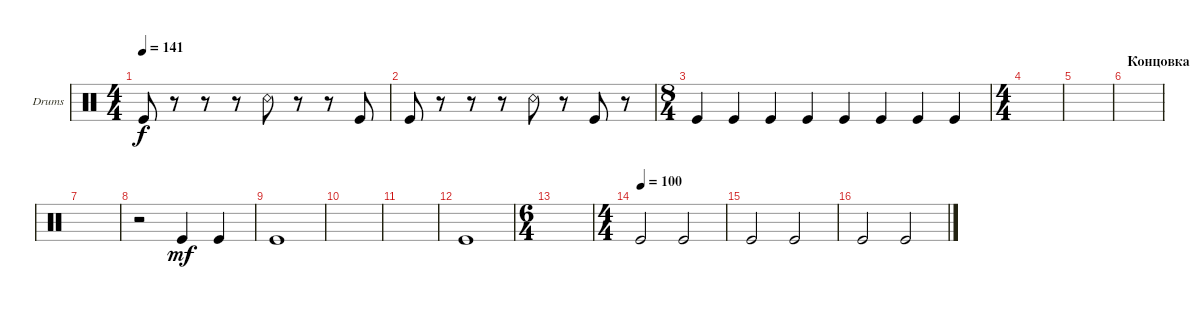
\defaultSystemsLayout 4
\bracketExtendMode groupsimilarinstruments
\firstSystemTrackNameOrientation horizontal
\otherSystemsTrackNameOrientation horizontal
\track ("Drumkit" "Drums") {instrument percussion}
\staff {score}
\articulation defaults
\ts (4 4)
\tempo 141
\clef neutral
\ks c "Kick (hit)".8{dy f}
r.8 r.8 r.8 "Snare (rim shot)".8 r.8 r.8 "Kick (hit)".8 |
"Kick (hit)".8 r.8 r.8 r.8 "Snare (rim shot)".8 r.8 "Kick (hit)".8 r.8 |
\ts (8 4)
"Kick (hit)".4 "Kick (hit)".4 "Kick (hit)".4 "Kick (hit)".4 "Kick (hit)".4 "Kick (hit)".4 "Kick (hit)".4 "Kick (hit)".4 |
\ts (4 4)
|
|
\section ("" "Концовка")
|
|
r.2 "Kick (hit)".4{dy mf} "Kick (hit)".4 |
"Kick (hit)".1 |
|
|
"Kick (hit)".1 |
\ts (6 4)
|
\ts (4 4)
\tempo (100 0.01875)
"Kick (hit)".2 "Kick (hit)".2 |
"Kick (hit)".2 "Kick (hit)".2 |
"Kick (hit)".2 "Kick (hit)".2
